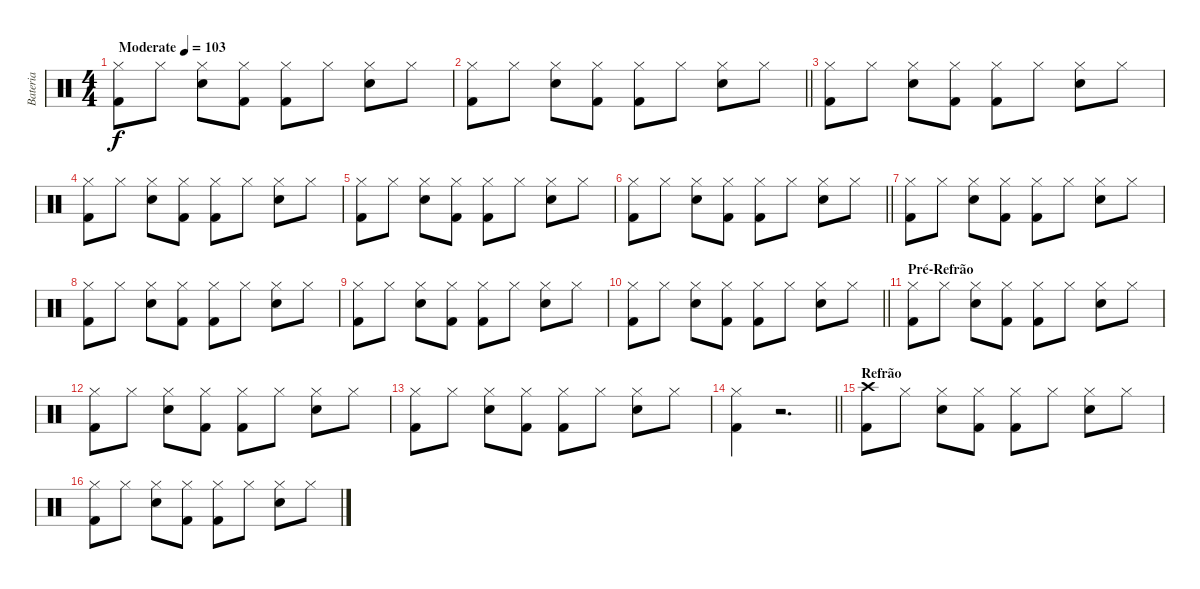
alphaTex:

\track ("Bateria" "Bateria") {instrument percussion}
\staff {score}
\articulation defaults
\ts (4 4)
\tempo (103 "Moderate")
\clef neutral
\ks c
("Hi-Hat (closed)" "Kick (hit) 2").8{dy f} "Hi-Hat (closed)".8 ("Hi-Hat (closed)" "Snare (hit) 2").8 ("Hi-Hat (closed)" "Kick (hit) 2").8 ("Hi-Hat (closed)" "Kick (hit) 2").8 "Hi-Hat (closed)".8 ("Hi-Hat (closed)" "Snare (hit) 2").8 "Hi-Hat (closed)".8 |
\barLineRight lightlight
("Hi-Hat (closed)" "Kick (hit) 2").8 "Hi-Hat (closed)".8 ("Hi-Hat (closed)" "Snare (hit) 2").8 ("Hi-Hat (closed)" "Kick (hit) 2").8 ("Hi-Hat (closed)" "Kick (hit) 2").8 "Hi-Hat (closed)".8 ("Hi-Hat (closed)" "Snare (hit) 2").8 "Hi-Hat (closed)".8 |
("Hi-Hat (closed)" "Kick (hit) 2").8 "Hi-Hat (closed)".8 ("Hi-Hat (closed)" "Snare (hit) 2").8 ("Hi-Hat (closed)" "Kick (hit) 2").8 ("Hi-Hat (closed)" "Kick (hit) 2").8 "Hi-Hat (closed)".8 ("Hi-Hat (closed)" "Snare (hit) 2").8 "Hi-Hat (closed)".8 |
("Hi-Hat (closed)" "Kick (hit) 2").8 "Hi-Hat (closed)".8 ("Hi-Hat (closed)" "Snare (hit) 2").8 ("Hi-Hat (closed)" "Kick (hit) 2").8 ("Hi-Hat (closed)" "Kick (hit) 2").8 "Hi-Hat (closed)".8 ("Hi-Hat (closed)" "Snare (hit) 2").8 "Hi-Hat (closed)".8 |
("Hi-Hat (closed)" "Kick (hit) 2").8 "Hi-Hat (closed)".8 ("Hi-Hat (closed)" "Snare (hit) 2").8 ("Hi-Hat (closed)" "Kick (hit) 2").8 ("Hi-Hat (closed)" "Kick (hit) 2").8 "Hi-Hat (closed)".8 ("Hi-Hat (closed)" "Snare (hit) 2").8 "Hi-Hat (closed)".8 |
\barLineRight lightlight
("Hi-Hat (closed)" "Kick (hit) 2").8 "Hi-Hat (closed)".8 ("Hi-Hat (closed)" "Snare (hit) 2").8 ("Hi-Hat (closed)" "Kick (hit) 2").8 ("Hi-Hat (closed)" "Kick (hit) 2").8 "Hi-Hat (closed)".8 ("Hi-Hat (closed)" "Snare (hit) 2").8 "Hi-Hat (closed)".8 |
("Hi-Hat (closed)" "Kick (hit) 2").8 "Hi-Hat (closed)".8 ("Hi-Hat (closed)" "Snare (hit) 2").8 ("Hi-Hat (closed)" "Kick (hit) 2").8 ("Hi-Hat (closed)" "Kick (hit) 2").8 "Hi-Hat (closed)".8 ("Hi-Hat (closed)" "Snare (hit) 2").8 "Hi-Hat (closed)".8 |
("Hi-Hat (closed)" "Kick (hit) 2").8 "Hi-Hat (closed)".8 ("Hi-Hat (closed)" "Snare (hit) 2").8 ("Hi-Hat (closed)" "Kick (hit) 2").8 ("Hi-Hat (closed)" "Kick (hit) 2").8 "Hi-Hat (closed)".8 ("Hi-Hat (closed)" "Snare (hit) 2").8 "Hi-Hat (closed)".8 |
("Hi-Hat (closed)" "Kick (hit) 2").8 "Hi-Hat (closed)".8 ("Hi-Hat (closed)" "Snare (hit) 2").8 ("Hi-Hat (closed)" "Kick (hit) 2").8 ("Hi-Hat (closed)" "Kick (hit) 2").8 "Hi-Hat (closed)".8 ("Hi-Hat (closed)" "Snare (hit) 2").8 "Hi-Hat (closed)".8 |
\barLineRight lightlight
("Hi-Hat (closed)" "Kick (hit) 2").8 "Hi-Hat (closed)".8 ("Hi-Hat (closed)" "Snare (hit) 2").8 ("Hi-Hat (closed)" "Kick (hit) 2").8 ("Hi-Hat (closed)" "Kick (hit) 2").8 "Hi-Hat (closed)".8 ("Hi-Hat (closed)" "Snare (hit) 2").8 "Hi-Hat (closed)".8 |
\section ("" "Pré-Refrão")
("Hi-Hat (closed)" "Kick (hit) 2").8 "Hi-Hat (closed)".8 ("Hi-Hat (closed)" "Snare (hit) 2").8 ("Hi-Hat (closed)" "Kick (hit) 2").8 ("Hi-Hat (closed)" "Kick (hit) 2").8 "Hi-Hat (closed)".8 ("Hi-Hat (closed)" "Snare (hit) 2").8 "Hi-Hat (closed)".8 |
("Hi-Hat (closed)" "Kick (hit) 2").8 "Hi-Hat (closed)".8 ("Hi-Hat (closed)" "Snare (hit) 2").8 ("Hi-Hat (closed)" "Kick (hit) 2").8 ("Hi-Hat (closed)" "Kick (hit) 2").8 "Hi-Hat (closed)".8 ("Hi-Hat (closed)" "Snare (hit) 2").8 "Hi-Hat (closed)".8 |
("Hi-Hat (closed)" "Kick (hit) 2").8 "Hi-Hat (closed)".8 ("Hi-Hat (closed)" "Snare (hit) 2").8 ("Hi-Hat (closed)" "Kick (hit) 2").8 ("Hi-Hat (closed)" "Kick (hit) 2").8 "Hi-Hat (closed)".8 ("Hi-Hat (closed)" "Snare (hit) 2").8 "Hi-Hat (closed)".8 |
\barLineRight lightlight
("Hi-Hat (closed)" "Kick (hit) 2").4 r.2{d} |
\section ("" "Refrão")
("Crash high (hit)" "Kick (hit) 2").8 "Hi-Hat (closed)".8 ("Hi-Hat (closed)" "Snare (hit) 2").8 ("Hi-Hat (closed)" "Kick (hit) 2").8 ("Hi-Hat (closed)" "Kick (hit) 2").8 "Hi-Hat (closed)".8 ("Hi-Hat (closed)" "Snare (hit) 2").8 "Hi-Hat (closed)".8 |
("Hi-Hat (closed)" "Kick (hit) 2").8 "Hi-Hat (closed)".8 ("Hi-Hat (closed)" "Snare (hit) 2").8 ("Hi-Hat (closed)" "Kick (hit) 2").8 ("Hi-Hat (closed)" "Kick (hit) 2").8 "Hi-Hat (closed)".8 ("Hi-Hat (closed)" "Snare (hit) 2").8 "Hi-Hat (closed)".8
